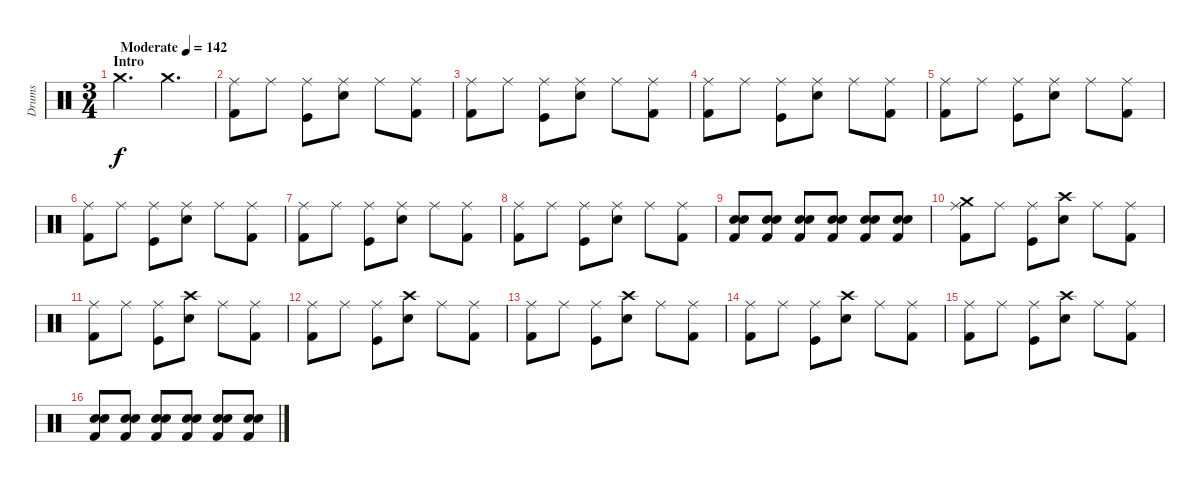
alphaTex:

\track ("Drums" "Drums") {instrument percussion}
\staff {score}
\articulation defaults
\ts (3 4)
\section ("" "Intro")
\tempo (142 "Moderate")
\clef neutral
\ks c "Crash medium (hit)".4{d dy f} "Crash medium (hit)".4{d}
|
("Ride (middle)" "Kick (hit) 2").8 "Ride (middle)".8 ("Ride (middle)" "Kick (hit)").8 ("Ride (middle)" "Electric Snare (hit)").8 "Ride (middle)".8 ("Ride (middle)" "Kick (hit) 2").8 |
("Ride (middle)" "Kick (hit) 2").8 "Ride (middle)".8 ("Ride (middle)" "Kick (hit)").8 ("Ride (middle)" "Electric Snare (hit)").8 "Ride (middle)".8 ("Ride (middle)" "Kick (hit) 2").8 |
("Ride (middle)" "Kick (hit) 2").8 "Ride (middle)".8 ("Ride (middle)" "Kick (hit)").8 ("Ride (middle)" "Electric Snare (hit)").8 "Ride (middle)".8 ("Ride (middle)" "Kick (hit) 2").8 |
("Ride (middle)" "Kick (hit) 2").8 "Ride (middle)".8 ("Ride (middle)" "Kick (hit)").8 ("Ride (middle)" "Electric Snare (hit)").8 "Ride (middle)".8 ("Ride (middle)" "Kick (hit) 2").8 |
("Ride (middle)" "Kick (hit) 2").8 "Ride (middle)".8 ("Ride (middle)" "Kick (hit)").8 ("Ride (middle)" "Electric Snare (hit)").8 "Ride (middle)".8 ("Ride (middle)" "Kick (hit) 2").8 |
("Ride (middle)" "Kick (hit) 2").8 "Ride (middle)".8 ("Ride (middle)" "Kick (hit)").8 ("Ride (middle)" "Electric Snare (hit)").8 "Ride (middle)".8 ("Ride (middle)" "Kick (hit) 2").8 |
("Ride (middle)" "Kick (hit) 2").8 "Ride (middle)".8 ("Ride (middle)" "Kick (hit)").8 ("Ride (middle)" "Electric Snare (hit)").8 "Ride (middle)".8 ("Ride (middle)" "Kick (hit) 2").8 |
("Electric Snare (hit)" "Snare (hit) 2" "Kick (hit) 2").8 ("Electric Snare (hit)" "Snare (hit) 2" "Kick (hit) 2").8 ("Electric Snare (hit)" "Snare (hit) 2" "Kick (hit) 2").8 ("Electric Snare (hit)" "Snare (hit) 2" "Kick (hit) 2").8 ("Electric Snare (hit)" "Snare (hit) 2" "Kick (hit) 2").8 ("Electric Snare (hit)" "Snare (hit) 2" "Kick (hit) 2").8 |
("Ride (middle)" "Crash medium (hit)" "Kick (hit) 2").8 "Ride (middle)".8 ("Ride (middle)" "Kick (hit)").8 ("Crash high (hit)" "Electric Snare (hit)").8 "Ride (middle)".8 ("Ride (middle)" "Kick (hit) 2").8 |
("Ride (middle)" "Kick (hit) 2").8 "Ride (middle)".8 ("Ride (middle)" "Kick (hit)").8 ("Crash high (hit)" "Electric Snare (hit)").8 "Ride (middle)".8 ("Ride (middle)" "Kick (hit) 2").8 |
("Ride (middle)" "Kick (hit) 2").8 "Ride (middle)".8 ("Ride (middle)" "Kick (hit)").8 ("Crash high (hit)" "Electric Snare (hit)").8 "Ride (middle)".8 ("Ride (middle)" "Kick (hit) 2").8 |
("Ride (middle)" "Kick (hit) 2").8 "Ride (middle)".8 ("Ride (middle)" "Kick (hit)").8 ("Crash high (hit)" "Electric Snare (hit)").8 "Ride (middle)".8 ("Ride (middle)" "Kick (hit) 2").8 |
("Ride (middle)" "Kick (hit) 2").8 "Ride (middle)".8 ("Ride (middle)" "Kick (hit)").8 ("Crash high (hit)" "Electric Snare (hit)").8 "Ride (middle)".8 ("Ride (middle)" "Kick (hit) 2").8 |
("Ride (middle)" "Kick (hit) 2").8 "Ride (middle)".8 ("Ride (middle)" "Kick (hit)").8 ("Crash high (hit)" "Electric Snare (hit)").8 "Ride (middle)".8 ("Ride (middle)" "Kick (hit) 2").8 |
("Electric Snare (hit)" "Snare (hit) 2" "Kick (hit) 2").8 ("Electric Snare (hit)" "Snare (hit) 2" "Kick (hit) 2").8 ("Electric Snare (hit)" "Snare (hit) 2" "Kick (hit) 2").8 ("Electric Snare (hit)" "Snare (hit) 2" "Kick (hit) 2").8 ("Electric Snare (hit)" "Snare (hit) 2" "Kick (hit) 2").8 ("Electric Snare (hit)" "Snare (hit) 2" "Kick (hit) 2").8
